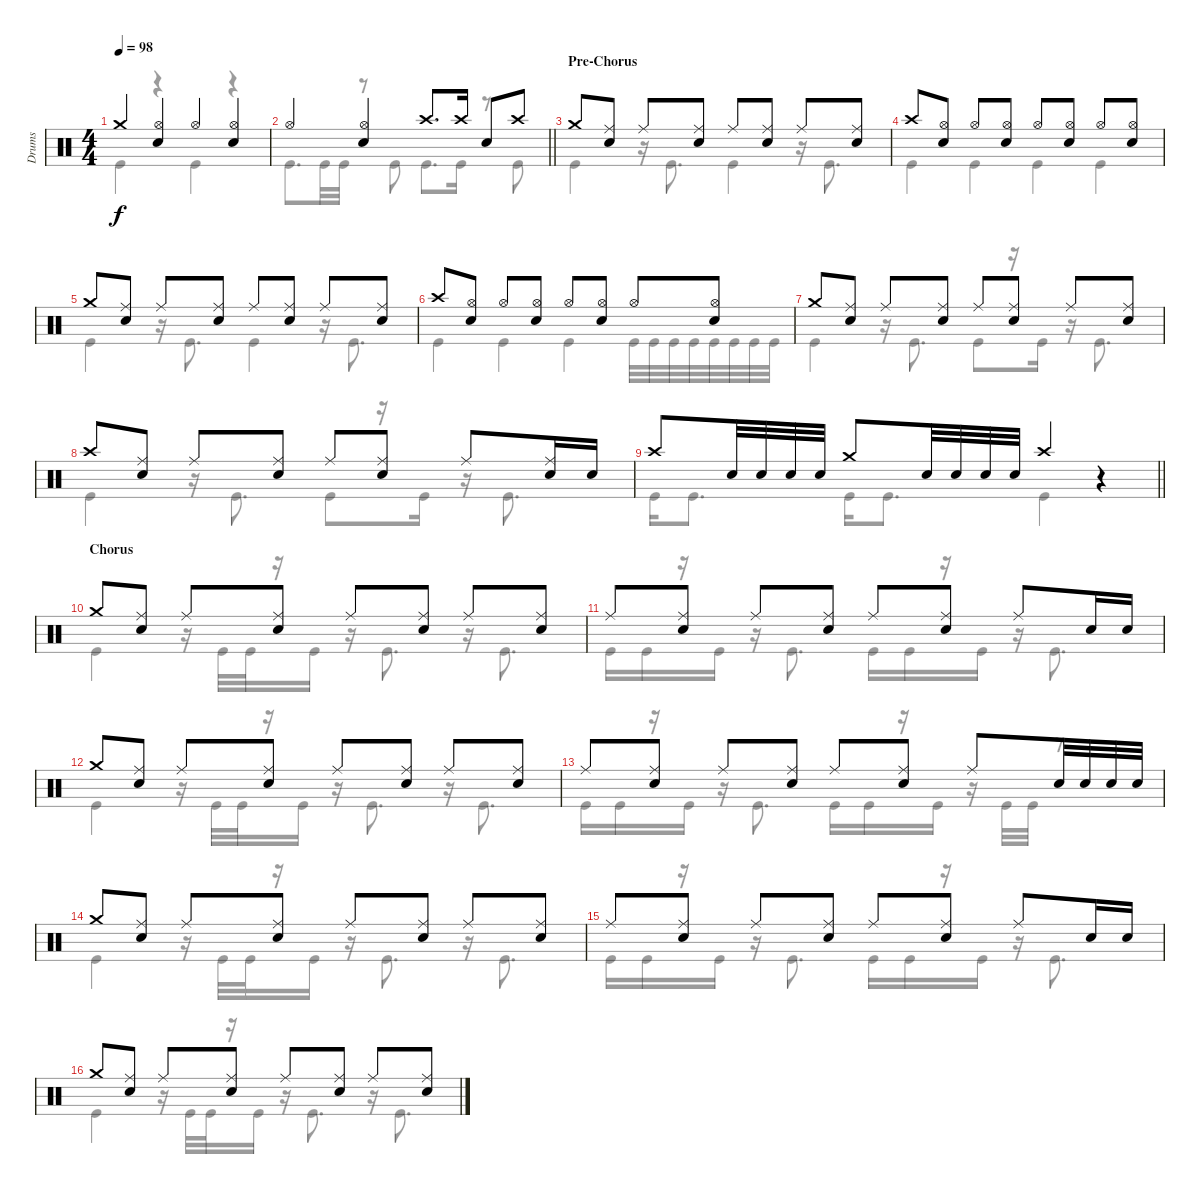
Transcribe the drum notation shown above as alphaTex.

\track ("Drums" "Drums") {instrument percussion}
\staff {score}
\articulation defaults
\voice
\ts (4 4)
\tempo 98
\clef neutral
\ks c "Crash medium (hit)".4{dy f}
("Hi-Hat (open)" "Electric Snare (hit)").4 "Hi-Hat (open)".4 ("Hi-Hat (open)" "Electric Snare (hit)").4 |
\barLineRight lightlight "Hi-Hat (open)".4
("Hi-Hat (open)" "Electric Snare (hit)").4 "Crash high (hit)".8{d} "Crash high (hit)".16 "Electric Snare (hit)".8 "Crash high (hit)".8 |
\section ("" "Pre-Chorus")
"Crash medium (hit)".8 ("Ride (middle)" "Electric Snare (hit)").8 "Ride (middle)".8 ("Ride (middle)" "Electric Snare (hit)").8 "Ride (middle)".8 ("Ride (middle)" "Electric Snare (hit)").8 "Ride (middle)".8 ("Ride (middle)" "Electric Snare (hit)").8 |
"Crash high (hit)".8 ("Hi-Hat (open)" "Electric Snare (hit)").8 "Hi-Hat (open)".8 ("Hi-Hat (open)" "Electric Snare (hit)").8 "Hi-Hat (open)".8 ("Hi-Hat (open)" "Electric Snare (hit)").8 "Hi-Hat (open)".8 ("Hi-Hat (open)" "Electric Snare (hit)").8 |
"Crash medium (hit)".8 ("Ride (middle)" "Electric Snare (hit)").8 "Ride (middle)".8 ("Ride (middle)" "Electric Snare (hit)").8 "Ride (middle)".8 ("Ride (middle)" "Electric Snare (hit)").8 "Ride (middle)".8 ("Ride (middle)" "Electric Snare (hit)").8 |
"Crash high (hit)".8 ("Hi-Hat (open)" "Electric Snare (hit)").8 "Hi-Hat (open)".8 ("Hi-Hat (open)" "Electric Snare (hit)").8 "Hi-Hat (open)".8 ("Hi-Hat (open)" "Electric Snare (hit)").8 "Hi-Hat (open)".8 ("Hi-Hat (open)" "Electric Snare (hit)").8 |
"Crash medium (hit)".8 ("Ride (middle)" "Electric Snare (hit)").8 "Ride (middle)".8 ("Ride (middle)" "Electric Snare (hit)").8 "Ride (middle)".8 ("Ride (middle)" "Electric Snare (hit)").8 "Ride (middle)".8 ("Ride (middle)" "Electric Snare (hit)").8 |
"Crash high (hit)".8 ("Ride (middle)" "Electric Snare (hit)").8 "Ride (middle)".8 ("Ride (middle)" "Electric Snare (hit)").8 "Ride (middle)".8 ("Ride (middle)" "Electric Snare (hit)").8 "Ride (middle)".8 ("Ride (middle)" "Electric Snare (hit)").16 "Electric Snare (hit)".16 |
\barLineRight lightlight "Crash high (hit)".8 "Electric Snare (hit)".32 "Electric Snare (hit)".32 "Electric Snare (hit)".32 "Electric Snare (hit)".32 "Crash medium (hit)".8 "Electric Snare (hit)".32 "Electric Snare (hit)".32 "Electric Snare (hit)".32 "Electric Snare (hit)".32 "Crash high (hit)".4
r.4 |
\section ("" "Chorus")
"Crash medium (hit)".8 ("Ride (middle)" "Electric Snare (hit)").8 "Ride (middle)".8 ("Ride (middle)" "Electric Snare (hit)").8 "Ride (middle)".8 ("Ride (middle)" "Electric Snare (hit)").8 "Ride (middle)".8 ("Ride (middle)" "Electric Snare (hit)").8 |
"Ride (middle)".8 ("Ride (middle)" "Electric Snare (hit)").8 "Ride (middle)".8 ("Ride (middle)" "Electric Snare (hit)").8 "Ride (middle)".8 ("Ride (middle)" "Electric Snare (hit)").8 "Ride (middle)".8 "Electric Snare (hit)".16 "Electric Snare (hit)".16 |
"Crash medium (hit)".8 ("Ride (middle)" "Electric Snare (hit)").8 "Ride (middle)".8 ("Ride (middle)" "Electric Snare (hit)").8 "Ride (middle)".8 ("Ride (middle)" "Electric Snare (hit)").8 "Ride (middle)".8 ("Ride (middle)" "Electric Snare (hit)").8 |
"Ride (middle)".8 ("Ride (middle)" "Electric Snare (hit)").8 "Ride (middle)".8 ("Ride (middle)" "Electric Snare (hit)").8 "Ride (middle)".8 ("Ride (middle)" "Electric Snare (hit)").8 "Ride (middle)".8 "Electric Snare (hit)".32 "Electric Snare (hit)".32 "Electric Snare (hit)".32 "Electric Snare (hit)".32 |
"Crash medium (hit)".8 ("Ride (middle)" "Electric Snare (hit)").8 "Ride (middle)".8 ("Ride (middle)" "Electric Snare (hit)").8 "Ride (middle)".8 ("Ride (middle)" "Electric Snare (hit)").8 "Ride (middle)".8 ("Ride (middle)" "Electric Snare (hit)").8 |
"Ride (middle)".8 ("Ride (middle)" "Electric Snare (hit)").8 "Ride (middle)".8 ("Ride (middle)" "Electric Snare (hit)").8 "Ride (middle)".8 ("Ride (middle)" "Electric Snare (hit)").8 "Ride (middle)".8 "Electric Snare (hit)".16 "Electric Snare (hit)".16 |
"Crash medium (hit)".8 ("Ride (middle)" "Electric Snare (hit)").8 "Ride (middle)".8 ("Ride (middle)" "Electric Snare (hit)").8 "Ride (middle)".8 ("Ride (middle)" "Electric Snare (hit)").8 "Ride (middle)".8 ("Ride (middle)" "Electric Snare (hit)").8
\voice
\clef neutral
\ottava regular
\simile none
\ks c "Kick (hit)".4{dy f}
r.4 "Kick (hit)".4 r.4 |
\barLineRight lightlight "Kick (hit)".8{d} "Kick (hit)".32 "Kick (hit)".32
r.8 "Kick (hit)".8 "Kick (hit)".8{d} "Kick (hit)".16 r.8 "Kick (hit)".8 |
"Kick (hit)".4 r.16 "Kick (hit)".8{d} "Kick (hit)".4 r.16 "Kick (hit)".8{d} |
"Kick (hit)".4 "Kick (hit)".4 "Kick (hit)".4 "Kick (hit)".4 |
"Kick (hit)".4 r.16 "Kick (hit)".8{d} "Kick (hit)".4 r.16 "Kick (hit)".8{d} |
"Kick (hit)".4 "Kick (hit)".4 "Kick (hit)".4 "Kick (hit)".32 "Kick (hit)".32 "Kick (hit)".32 "Kick (hit)".32 "Kick (hit)".32 "Kick (hit)".32 "Kick (hit)".32 "Kick (hit)".32 |
"Kick (hit)".4 r.16 "Kick (hit)".8{d} "Kick (hit)".8 r.16 "Kick (hit)".16 r.16 "Kick (hit)".8{d} |
"Kick (hit)".4 r.16 "Kick (hit)".8{d} "Kick (hit)".8 r.16 "Kick (hit)".16 r.16 "Kick (hit)".8{d} |
\barLineRight lightlight "Kick (hit)".16 "Kick (hit)".8{d} "Kick (hit)".16 "Kick (hit)".8{d} "Kick (hit)".4
r.4 |
"Kick (hit)".4 r.16 "Kick (hit)".32 "Kick (hit)".32 r.16 "Kick (hit)".16 r.16 "Kick (hit)".8{d} r.16 "Kick (hit)".8{d} |
"Kick (hit)".16 "Kick (hit)".16 r.16 "Kick (hit)".16 r.16 "Kick (hit)".8{d} "Kick (hit)".16 "Kick (hit)".16 r.16 "Kick (hit)".16 r.16 "Kick (hit)".8{d} |
"Kick (hit)".4 r.16 "Kick (hit)".32 "Kick (hit)".32 r.16 "Kick (hit)".16 r.16 "Kick (hit)".8{d} r.16 "Kick (hit)".8{d} |
"Kick (hit)".16 "Kick (hit)".16 r.16 "Kick (hit)".16 r.16 "Kick (hit)".8{d} "Kick (hit)".16 "Kick (hit)".16 r.16 "Kick (hit)".16 r.16 "Kick (hit)".32 "Kick (hit)".32 r.8 |
"Kick (hit)".4 r.16 "Kick (hit)".32 "Kick (hit)".32 r.16 "Kick (hit)".16 r.16 "Kick (hit)".8{d} r.16 "Kick (hit)".8{d} |
"Kick (hit)".16 "Kick (hit)".16 r.16 "Kick (hit)".16 r.16 "Kick (hit)".8{d} "Kick (hit)".16 "Kick (hit)".16 r.16 "Kick (hit)".16 r.16 "Kick (hit)".8{d} |
"Kick (hit)".4 r.16 "Kick (hit)".32 "Kick (hit)".32 r.16 "Kick (hit)".16 r.16 "Kick (hit)".8{d} r.16 "Kick (hit)".8{d}
